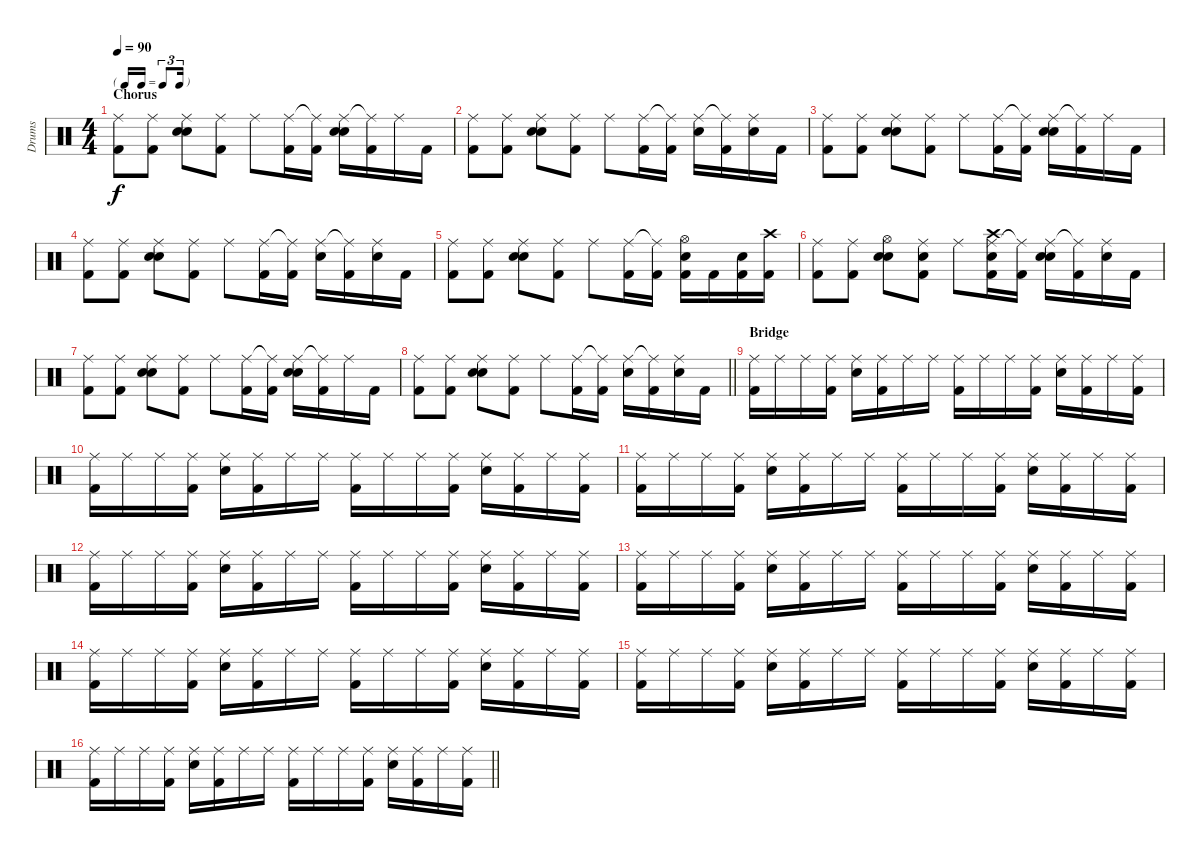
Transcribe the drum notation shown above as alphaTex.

\track ("Drums" "Drums") {instrument percussion}
\staff {score}
\articulation defaults
\ts (4 4)
\tf triplet16th
\section ("" "Chorus")
\tempo 90
\clef neutral
\ks c
("Ride (middle)" "Kick (hit) 2").8{dy f} ("Ride (middle)" "Kick (hit) 2").8 ("Ride (middle)" "Hand Clap (hit)" "Snare (hit) 2").8 ("Ride (middle)" "Kick (hit) 2").8 "Ride (middle)".8 ("Ride (middle)" "Kick (hit) 2").16 ("Ride (middle)"{t} "Kick (hit) 2").16 ("Ride (middle)" "Hand Clap (hit)" "Snare (hit) 2").16 ("Ride (middle)"{t} "Kick (hit) 2").16 "Ride (middle)".16 "Kick (hit) 2".16 |
("Ride (middle)" "Kick (hit) 2").8 ("Ride (middle)" "Kick (hit) 2").8 ("Ride (middle)" "Hand Clap (hit)" "Snare (hit) 2").8 ("Ride (middle)" "Kick (hit) 2").8 "Ride (middle)".8 ("Ride (middle)" "Kick (hit) 2").16 ("Ride (middle)"{t} "Kick (hit) 2").16 ("Ride (middle)" "Hand Clap (hit)").16 ("Ride (middle)"{t} "Kick (hit) 2").16 ("Ride (middle)" "Snare (hit) 2").16 "Kick (hit) 2".16 |
("Ride (middle)" "Kick (hit) 2").8 ("Ride (middle)" "Kick (hit) 2").8 ("Ride (middle)" "Hand Clap (hit)" "Snare (hit) 2").8 ("Ride (middle)" "Kick (hit) 2").8 "Ride (middle)".8 ("Ride (middle)" "Kick (hit) 2").16 ("Ride (middle)"{t} "Kick (hit) 2").16 ("Ride (middle)" "Hand Clap (hit)" "Snare (hit) 2").16 ("Ride (middle)"{t} "Kick (hit) 2").16 "Ride (middle)".16 "Kick (hit) 2".16 |
("Ride (middle)" "Kick (hit) 2").8 ("Ride (middle)" "Kick (hit) 2").8 ("Ride (middle)" "Hand Clap (hit)" "Snare (hit) 2").8 ("Ride (middle)" "Kick (hit) 2").8 "Ride (middle)".8 ("Ride (middle)" "Kick (hit) 2").16 ("Ride (middle)"{t} "Kick (hit) 2").16 ("Ride (middle)" "Hand Clap (hit)").16 ("Ride (middle)"{t} "Kick (hit) 2").16 ("Ride (middle)" "Snare (hit) 2").16 "Kick (hit) 2".16 |
("Ride (middle)" "Kick (hit) 2").8 ("Ride (middle)" "Kick (hit) 2").8 ("Ride (middle)" "Hand Clap (hit)" "Snare (hit) 2").8 ("Ride (middle)" "Kick (hit) 2").8 "Ride (middle)".8 ("Ride (middle)" "Kick (hit) 2").16 ("Ride (middle)"{t} "Kick (hit) 2").16 ("Hi-Hat (open)" "Snare (hit) 2" "Kick (hit) 2").16 "Kick (hit) 2".16 ("Snare (hit) 2" "Kick (hit) 2").16 ("Crash high (hit)" "Kick (hit) 2").16 |
("Ride (middle)" "Kick (hit) 2").8 ("Ride (middle)" "Kick (hit) 2").8 ("Hi-Hat (open)" "Hand Clap (hit)" "Snare (hit) 2").8 ("Ride (middle)" "Snare (hit) 2" "Kick (hit) 2").8 "Ride (middle)".8 ("Ride (middle)" "Crash high (hit)" "Snare (hit) 2" "Kick (hit) 2").16 ("Ride (middle)"{t} "Kick (hit) 2").16 ("Ride (middle)" "Hand Clap (hit)" "Snare (hit) 2").16 ("Ride (middle)"{t} "Kick (hit) 2").16 ("Ride (middle)" "Snare (hit) 2").16 "Kick (hit) 2".16 |
("Ride (middle)" "Kick (hit) 2").8 ("Ride (middle)" "Kick (hit) 2").8 ("Ride (middle)" "Hand Clap (hit)" "Snare (hit) 2").8 ("Ride (middle)" "Kick (hit) 2").8 "Ride (middle)".8 ("Ride (middle)" "Kick (hit) 2").16 ("Ride (middle)"{t} "Kick (hit) 2").16 ("Ride (middle)" "Hand Clap (hit)" "Snare (hit) 2").16 ("Ride (middle)"{t} "Kick (hit) 2").16 "Ride (middle)".16 "Kick (hit) 2".16 |
\barLineRight lightlight
("Ride (middle)" "Kick (hit) 2").8 ("Ride (middle)" "Kick (hit) 2").8 ("Ride (middle)" "Hand Clap (hit)" "Snare (hit) 2").8 ("Ride (middle)" "Kick (hit) 2").8 "Ride (middle)".8 ("Ride (middle)" "Kick (hit) 2").16 ("Ride (middle)"{t} "Kick (hit) 2").16 ("Ride (middle)" "Hand Clap (hit)").16 ("Ride (middle)"{t} "Kick (hit) 2").16 ("Ride (middle)" "Snare (hit) 2").16 "Kick (hit) 2".16 |
\section ("" "Bridge")
("Ride (middle)" "Kick (hit) 2").16 "Ride (middle)".16 "Ride (middle)".16 ("Ride (middle)" "Kick (hit) 2").16 ("Ride (middle)" "Snare (hit) 2").16 ("Ride (middle)" "Kick (hit) 2").16 "Ride (middle)".16 "Ride (middle)".16 ("Ride (middle)" "Kick (hit) 2").16 "Ride (middle)".16 "Ride (middle)".16 ("Ride (middle)" "Kick (hit) 2").16 ("Ride (middle)" "Snare (hit) 2").16 ("Ride (middle)" "Kick (hit) 2").16 "Ride (middle)".16 ("Ride (middle)" "Kick (hit) 2").16 |
("Ride (middle)" "Kick (hit) 2").16 "Ride (middle)".16 "Ride (middle)".16 ("Ride (middle)" "Kick (hit) 2").16 ("Ride (middle)" "Snare (hit) 2").16 ("Ride (middle)" "Kick (hit) 2").16 "Ride (middle)".16 "Ride (middle)".16 ("Ride (middle)" "Kick (hit) 2").16 "Ride (middle)".16 "Ride (middle)".16 ("Ride (middle)" "Kick (hit) 2").16 ("Ride (middle)" "Snare (hit) 2").16 ("Ride (middle)" "Kick (hit) 2").16 "Ride (middle)".16 ("Ride (middle)" "Kick (hit) 2").16 |
("Ride (middle)" "Kick (hit) 2").16 "Ride (middle)".16 "Ride (middle)".16 ("Ride (middle)" "Kick (hit) 2").16 ("Ride (middle)" "Snare (hit) 2").16 ("Ride (middle)" "Kick (hit) 2").16 "Ride (middle)".16 "Ride (middle)".16 ("Ride (middle)" "Kick (hit) 2").16 "Ride (middle)".16 "Ride (middle)".16 ("Ride (middle)" "Kick (hit) 2").16 ("Ride (middle)" "Snare (hit) 2").16 ("Ride (middle)" "Kick (hit) 2").16 "Ride (middle)".16 ("Ride (middle)" "Kick (hit) 2").16 |
("Ride (middle)" "Kick (hit) 2").16 "Ride (middle)".16 "Ride (middle)".16 ("Ride (middle)" "Kick (hit) 2").16 ("Ride (middle)" "Snare (hit) 2").16 ("Ride (middle)" "Kick (hit) 2").16 "Ride (middle)".16 "Ride (middle)".16 ("Ride (middle)" "Kick (hit) 2").16 "Ride (middle)".16 "Ride (middle)".16 ("Ride (middle)" "Kick (hit) 2").16 ("Ride (middle)" "Snare (hit) 2").16 ("Ride (middle)" "Kick (hit) 2").16 "Ride (middle)".16 ("Ride (middle)" "Kick (hit) 2").16 |
("Ride (middle)" "Kick (hit) 2").16 "Ride (middle)".16 "Ride (middle)".16 ("Ride (middle)" "Kick (hit) 2").16 ("Ride (middle)" "Snare (hit) 2").16 ("Ride (middle)" "Kick (hit) 2").16 "Ride (middle)".16 "Ride (middle)".16 ("Ride (middle)" "Kick (hit) 2").16 "Ride (middle)".16 "Ride (middle)".16 ("Ride (middle)" "Kick (hit) 2").16 ("Ride (middle)" "Snare (hit) 2").16 ("Ride (middle)" "Kick (hit) 2").16 "Ride (middle)".16 ("Ride (middle)" "Kick (hit) 2").16 |
("Ride (middle)" "Kick (hit) 2").16 "Ride (middle)".16 "Ride (middle)".16 ("Ride (middle)" "Kick (hit) 2").16 ("Ride (middle)" "Snare (hit) 2").16 ("Ride (middle)" "Kick (hit) 2").16 "Ride (middle)".16 "Ride (middle)".16 ("Ride (middle)" "Kick (hit) 2").16 "Ride (middle)".16 "Ride (middle)".16 ("Ride (middle)" "Kick (hit) 2").16 ("Ride (middle)" "Snare (hit) 2").16 ("Ride (middle)" "Kick (hit) 2").16 "Ride (middle)".16 ("Ride (middle)" "Kick (hit) 2").16 |
("Ride (middle)" "Kick (hit) 2").16 "Ride (middle)".16 "Ride (middle)".16 ("Ride (middle)" "Kick (hit) 2").16 ("Ride (middle)" "Snare (hit) 2").16 ("Ride (middle)" "Kick (hit) 2").16 "Ride (middle)".16 "Ride (middle)".16 ("Ride (middle)" "Kick (hit) 2").16 "Ride (middle)".16 "Ride (middle)".16 ("Ride (middle)" "Kick (hit) 2").16 ("Ride (middle)" "Snare (hit) 2").16 ("Ride (middle)" "Kick (hit) 2").16 "Ride (middle)".16 ("Ride (middle)" "Kick (hit) 2").16 |
\barLineRight lightlight
("Ride (middle)" "Kick (hit) 2").16 "Ride (middle)".16 "Ride (middle)".16 ("Ride (middle)" "Kick (hit) 2").16 ("Ride (middle)" "Snare (hit) 2").16 ("Ride (middle)" "Kick (hit) 2").16 "Ride (middle)".16 "Ride (middle)".16 ("Ride (middle)" "Kick (hit) 2").16 "Ride (middle)".16 "Ride (middle)".16 ("Ride (middle)" "Kick (hit) 2").16 ("Ride (middle)" "Snare (hit) 2").16 ("Ride (middle)" "Kick (hit) 2").16 "Ride (middle)".16 ("Ride (middle)" "Kick (hit) 2").16
